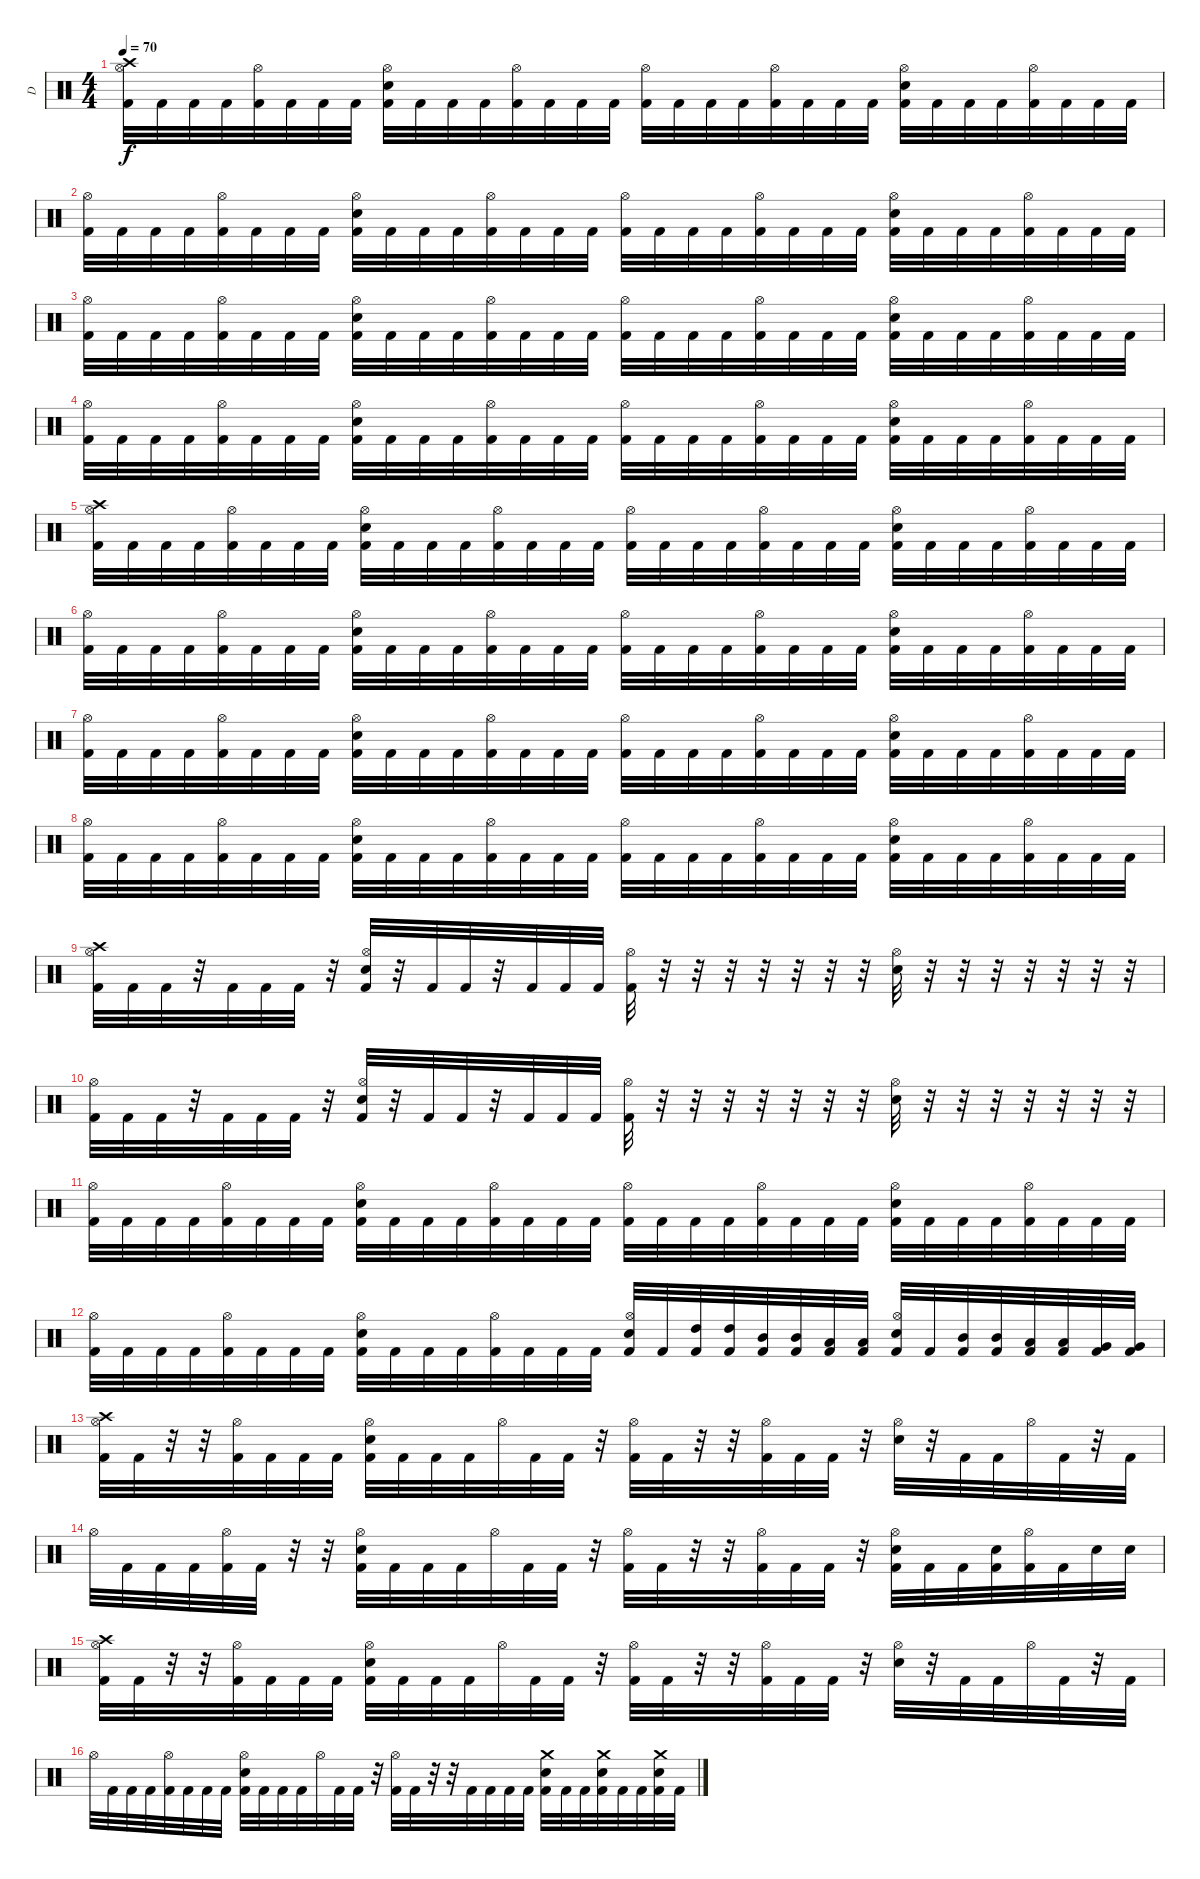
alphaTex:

\track ("D" "D") {instrument percussion}
\staff {score}
\articulation defaults
\ts (4 4)
\tempo 70
\clef neutral
\ks c
("Crash high (hit)" "Kick (hit) 2" "Hi-Hat (open)").32{dy f} "Kick (hit) 2".32 "Kick (hit) 2".32 "Kick (hit) 2".32 ("Kick (hit) 2" "Hi-Hat (open)").32 "Kick (hit) 2".32 "Kick (hit) 2".32 "Kick (hit) 2".32 ("Electric Snare (hit)" "Kick (hit) 2" "Hi-Hat (open)").32 "Kick (hit) 2".32 "Kick (hit) 2".32 "Kick (hit) 2".32 ("Kick (hit) 2" "Hi-Hat (open)").32 "Kick (hit) 2".32 "Kick (hit) 2".32 "Kick (hit) 2".32 ("Kick (hit) 2" "Hi-Hat (open)").32 "Kick (hit) 2".32 "Kick (hit) 2".32 "Kick (hit) 2".32 ("Kick (hit) 2" "Hi-Hat (open)").32 "Kick (hit) 2".32 "Kick (hit) 2".32 "Kick (hit) 2".32 ("Electric Snare (hit)" "Kick (hit) 2" "Hi-Hat (open)").32 "Kick (hit) 2".32 "Kick (hit) 2".32 "Kick (hit) 2".32 ("Kick (hit) 2" "Hi-Hat (open)").32 "Kick (hit) 2".32 "Kick (hit) 2".32 "Kick (hit) 2".32 |
("Kick (hit) 2" "Hi-Hat (open)").32 "Kick (hit) 2".32 "Kick (hit) 2".32 "Kick (hit) 2".32 ("Kick (hit) 2" "Hi-Hat (open)").32 "Kick (hit) 2".32 "Kick (hit) 2".32 "Kick (hit) 2".32 ("Electric Snare (hit)" "Kick (hit) 2" "Hi-Hat (open)").32 "Kick (hit) 2".32 "Kick (hit) 2".32 "Kick (hit) 2".32 ("Kick (hit) 2" "Hi-Hat (open)").32 "Kick (hit) 2".32 "Kick (hit) 2".32 "Kick (hit) 2".32 ("Kick (hit) 2" "Hi-Hat (open)").32 "Kick (hit) 2".32 "Kick (hit) 2".32 "Kick (hit) 2".32 ("Kick (hit) 2" "Hi-Hat (open)").32 "Kick (hit) 2".32 "Kick (hit) 2".32 "Kick (hit) 2".32 ("Electric Snare (hit)" "Kick (hit) 2" "Hi-Hat (open)").32 "Kick (hit) 2".32 "Kick (hit) 2".32 "Kick (hit) 2".32 ("Kick (hit) 2" "Hi-Hat (open)").32 "Kick (hit) 2".32 "Kick (hit) 2".32 "Kick (hit) 2".32 |
("Kick (hit) 2" "Hi-Hat (open)").32 "Kick (hit) 2".32 "Kick (hit) 2".32 "Kick (hit) 2".32 ("Kick (hit) 2" "Hi-Hat (open)").32 "Kick (hit) 2".32 "Kick (hit) 2".32 "Kick (hit) 2".32 ("Electric Snare (hit)" "Kick (hit) 2" "Hi-Hat (open)").32 "Kick (hit) 2".32 "Kick (hit) 2".32 "Kick (hit) 2".32 ("Kick (hit) 2" "Hi-Hat (open)").32 "Kick (hit) 2".32 "Kick (hit) 2".32 "Kick (hit) 2".32 ("Kick (hit) 2" "Hi-Hat (open)").32 "Kick (hit) 2".32 "Kick (hit) 2".32 "Kick (hit) 2".32 ("Kick (hit) 2" "Hi-Hat (open)").32 "Kick (hit) 2".32 "Kick (hit) 2".32 "Kick (hit) 2".32 ("Electric Snare (hit)" "Kick (hit) 2" "Hi-Hat (open)").32 "Kick (hit) 2".32 "Kick (hit) 2".32 "Kick (hit) 2".32 ("Kick (hit) 2" "Hi-Hat (open)").32 "Kick (hit) 2".32 "Kick (hit) 2".32 "Kick (hit) 2".32 |
("Kick (hit) 2" "Hi-Hat (open)").32 "Kick (hit) 2".32 "Kick (hit) 2".32 "Kick (hit) 2".32 ("Kick (hit) 2" "Hi-Hat (open)").32 "Kick (hit) 2".32 "Kick (hit) 2".32 "Kick (hit) 2".32 ("Electric Snare (hit)" "Kick (hit) 2" "Hi-Hat (open)").32 "Kick (hit) 2".32 "Kick (hit) 2".32 "Kick (hit) 2".32 ("Kick (hit) 2" "Hi-Hat (open)").32 "Kick (hit) 2".32 "Kick (hit) 2".32 "Kick (hit) 2".32 ("Kick (hit) 2" "Hi-Hat (open)").32 "Kick (hit) 2".32 "Kick (hit) 2".32 "Kick (hit) 2".32 ("Kick (hit) 2" "Hi-Hat (open)").32 "Kick (hit) 2".32 "Kick (hit) 2".32 "Kick (hit) 2".32 ("Electric Snare (hit)" "Kick (hit) 2" "Hi-Hat (open)").32 "Kick (hit) 2".32 "Kick (hit) 2".32 "Kick (hit) 2".32 ("Kick (hit) 2" "Hi-Hat (open)").32 "Kick (hit) 2".32 "Kick (hit) 2".32 "Kick (hit) 2".32 |
("Crash high (hit)" "Kick (hit) 2" "Hi-Hat (open)").32 "Kick (hit) 2".32 "Kick (hit) 2".32 "Kick (hit) 2".32 ("Kick (hit) 2" "Hi-Hat (open)").32 "Kick (hit) 2".32 "Kick (hit) 2".32 "Kick (hit) 2".32 ("Electric Snare (hit)" "Kick (hit) 2" "Hi-Hat (open)").32 "Kick (hit) 2".32 "Kick (hit) 2".32 "Kick (hit) 2".32 ("Kick (hit) 2" "Hi-Hat (open)").32 "Kick (hit) 2".32 "Kick (hit) 2".32 "Kick (hit) 2".32 ("Kick (hit) 2" "Hi-Hat (open)").32 "Kick (hit) 2".32 "Kick (hit) 2".32 "Kick (hit) 2".32 ("Kick (hit) 2" "Hi-Hat (open)").32 "Kick (hit) 2".32 "Kick (hit) 2".32 "Kick (hit) 2".32 ("Electric Snare (hit)" "Kick (hit) 2" "Hi-Hat (open)").32 "Kick (hit) 2".32 "Kick (hit) 2".32 "Kick (hit) 2".32 ("Kick (hit) 2" "Hi-Hat (open)").32 "Kick (hit) 2".32 "Kick (hit) 2".32 "Kick (hit) 2".32 |
("Kick (hit) 2" "Hi-Hat (open)").32 "Kick (hit) 2".32 "Kick (hit) 2".32 "Kick (hit) 2".32 ("Kick (hit) 2" "Hi-Hat (open)").32 "Kick (hit) 2".32 "Kick (hit) 2".32 "Kick (hit) 2".32 ("Electric Snare (hit)" "Kick (hit) 2" "Hi-Hat (open)").32 "Kick (hit) 2".32 "Kick (hit) 2".32 "Kick (hit) 2".32 ("Kick (hit) 2" "Hi-Hat (open)").32 "Kick (hit) 2".32 "Kick (hit) 2".32 "Kick (hit) 2".32 ("Kick (hit) 2" "Hi-Hat (open)").32 "Kick (hit) 2".32 "Kick (hit) 2".32 "Kick (hit) 2".32 ("Kick (hit) 2" "Hi-Hat (open)").32 "Kick (hit) 2".32 "Kick (hit) 2".32 "Kick (hit) 2".32 ("Electric Snare (hit)" "Kick (hit) 2" "Hi-Hat (open)").32 "Kick (hit) 2".32 "Kick (hit) 2".32 "Kick (hit) 2".32 ("Kick (hit) 2" "Hi-Hat (open)").32 "Kick (hit) 2".32 "Kick (hit) 2".32 "Kick (hit) 2".32 |
("Kick (hit) 2" "Hi-Hat (open)").32 "Kick (hit) 2".32 "Kick (hit) 2".32 "Kick (hit) 2".32 ("Kick (hit) 2" "Hi-Hat (open)").32 "Kick (hit) 2".32 "Kick (hit) 2".32 "Kick (hit) 2".32 ("Electric Snare (hit)" "Kick (hit) 2" "Hi-Hat (open)").32 "Kick (hit) 2".32 "Kick (hit) 2".32 "Kick (hit) 2".32 ("Kick (hit) 2" "Hi-Hat (open)").32 "Kick (hit) 2".32 "Kick (hit) 2".32 "Kick (hit) 2".32 ("Kick (hit) 2" "Hi-Hat (open)").32 "Kick (hit) 2".32 "Kick (hit) 2".32 "Kick (hit) 2".32 ("Kick (hit) 2" "Hi-Hat (open)").32 "Kick (hit) 2".32 "Kick (hit) 2".32 "Kick (hit) 2".32 ("Electric Snare (hit)" "Kick (hit) 2" "Hi-Hat (open)").32 "Kick (hit) 2".32 "Kick (hit) 2".32 "Kick (hit) 2".32 ("Kick (hit) 2" "Hi-Hat (open)").32 "Kick (hit) 2".32 "Kick (hit) 2".32 "Kick (hit) 2".32 |
("Kick (hit) 2" "Hi-Hat (open)").32 "Kick (hit) 2".32 "Kick (hit) 2".32 "Kick (hit) 2".32 ("Kick (hit) 2" "Hi-Hat (open)").32 "Kick (hit) 2".32 "Kick (hit) 2".32 "Kick (hit) 2".32 ("Electric Snare (hit)" "Kick (hit) 2" "Hi-Hat (open)").32 "Kick (hit) 2".32 "Kick (hit) 2".32 "Kick (hit) 2".32 ("Kick (hit) 2" "Hi-Hat (open)").32 "Kick (hit) 2".32 "Kick (hit) 2".32 "Kick (hit) 2".32 ("Kick (hit) 2" "Hi-Hat (open)").32 "Kick (hit) 2".32 "Kick (hit) 2".32 "Kick (hit) 2".32 ("Kick (hit) 2" "Hi-Hat (open)").32 "Kick (hit) 2".32 "Kick (hit) 2".32 "Kick (hit) 2".32 ("Electric Snare (hit)" "Kick (hit) 2" "Hi-Hat (open)").32 "Kick (hit) 2".32 "Kick (hit) 2".32 "Kick (hit) 2".32 ("Kick (hit) 2" "Hi-Hat (open)").32 "Kick (hit) 2".32 "Kick (hit) 2".32 "Kick (hit) 2".32 |
("Crash high (hit)" "Kick (hit) 2" "Hi-Hat (open)").32 "Kick (hit) 2".32 "Kick (hit) 2".32 r.32 "Kick (hit) 2".32 "Kick (hit) 2".32 "Kick (hit) 2".32 r.32 ("Electric Snare (hit)" "Kick (hit) 2" "Hi-Hat (open)").32 r.32 "Kick (hit) 2".32 "Kick (hit) 2".32 r.32 "Kick (hit) 2".32 "Kick (hit) 2".32 "Kick (hit) 2".32 ("Kick (hit) 2" "Hi-Hat (open)").32 r.32 r.32 r.32 r.32 r.32 r.32 r.32 ("Electric Snare (hit)" "Hi-Hat (open)").32 r.32 r.32 r.32 r.32 r.32 r.32 r.32 |
("Kick (hit) 2" "Hi-Hat (open)").32 "Kick (hit) 2".32 "Kick (hit) 2".32 r.32 "Kick (hit) 2".32 "Kick (hit) 2".32 "Kick (hit) 2".32 r.32 ("Electric Snare (hit)" "Kick (hit) 2" "Hi-Hat (open)").32 r.32 "Kick (hit) 2".32 "Kick (hit) 2".32 r.32 "Kick (hit) 2".32 "Kick (hit) 2".32 "Kick (hit) 2".32 ("Kick (hit) 2" "Hi-Hat (open)").32 r.32 r.32 r.32 r.32 r.32 r.32 r.32 ("Electric Snare (hit)" "Hi-Hat (open)").32 r.32 r.32 r.32 r.32 r.32 r.32 r.32 |
("Kick (hit) 2" "Hi-Hat (open)").32 "Kick (hit) 2".32 "Kick (hit) 2".32 "Kick (hit) 2".32 ("Kick (hit) 2" "Hi-Hat (open)").32 "Kick (hit) 2".32 "Kick (hit) 2".32 "Kick (hit) 2".32 ("Electric Snare (hit)" "Kick (hit) 2" "Hi-Hat (open)").32 "Kick (hit) 2".32 "Kick (hit) 2".32 "Kick (hit) 2".32 ("Kick (hit) 2" "Hi-Hat (open)").32 "Kick (hit) 2".32 "Kick (hit) 2".32 "Kick (hit) 2".32 ("Kick (hit) 2" "Hi-Hat (open)").32 "Kick (hit) 2".32 "Kick (hit) 2".32 "Kick (hit) 2".32 ("Kick (hit) 2" "Hi-Hat (open)").32 "Kick (hit) 2".32 "Kick (hit) 2".32 "Kick (hit) 2".32 ("Electric Snare (hit)" "Kick (hit) 2" "Hi-Hat (open)").32 "Kick (hit) 2".32 "Kick (hit) 2".32 "Kick (hit) 2".32 ("Kick (hit) 2" "Hi-Hat (open)").32 "Kick (hit) 2".32 "Kick (hit) 2".32 "Kick (hit) 2".32 |
("Kick (hit) 2" "Hi-Hat (open)").32 "Kick (hit) 2".32 "Kick (hit) 2".32 "Kick (hit) 2".32 ("Kick (hit) 2" "Hi-Hat (open)").32 "Kick (hit) 2".32 "Kick (hit) 2".32 "Kick (hit) 2".32 ("Electric Snare (hit)" "Kick (hit) 2" "Hi-Hat (open)").32 "Kick (hit) 2".32 "Kick (hit) 2".32 "Kick (hit) 2".32 ("Kick (hit) 2" "Hi-Hat (open)").32 "Kick (hit) 2".32 "Kick (hit) 2".32 "Kick (hit) 2".32 ("Electric Snare (hit)" "Kick (hit) 2" "Hi-Hat (open)").32 "Kick (hit) 2".32 ("High Tom (hit)" "Kick (hit) 2").32 ("High Tom (hit)" "Kick (hit) 2").32 ("Mid Tom (hit)" "Kick (hit) 2").32 ("Mid Tom (hit)" "Kick (hit) 2").32 ("Low Tom (hit)" "Kick (hit) 2").32 ("Low Tom (hit)" "Kick (hit) 2").32 ("Electric Snare (hit)" "Kick (hit) 2" "Hi-Hat (open)").32 "Kick (hit) 2".32 ("Mid Tom (hit)" "Kick (hit) 2").32 ("Mid Tom (hit)" "Kick (hit) 2").32 ("Low Tom (hit)" "Kick (hit) 2").32 ("Low Tom (hit)" "Kick (hit) 2").32 ("Very Low Tom (hit)" "Kick (hit) 2").32 ("Very Low Tom (hit)" "Kick (hit) 2").32 |
("Crash high (hit)" "Kick (hit) 2" "Hi-Hat (open)").32 "Kick (hit) 2".32 r.32 r.32 ("Kick (hit) 2" "Hi-Hat (open)").32 "Kick (hit) 2".32 "Kick (hit) 2".32 "Kick (hit) 2".32 ("Electric Snare (hit)" "Kick (hit) 2" "Hi-Hat (open)").32 "Kick (hit) 2".32 "Kick (hit) 2".32 "Kick (hit) 2".32 "Hi-Hat (open)".32 "Kick (hit) 2".32 "Kick (hit) 2".32 r.32 ("Kick (hit) 2" "Hi-Hat (open)").32 "Kick (hit) 2".32 r.32 r.32 ("Kick (hit) 2" "Hi-Hat (open)").32 "Kick (hit) 2".32 "Kick (hit) 2".32 r.32 ("Electric Snare (hit)" "Hi-Hat (open)").32 r.32 "Kick (hit) 2".32 "Kick (hit) 2".32 "Hi-Hat (open)".32 "Kick (hit) 2".32 r.32 "Kick (hit) 2".32 |
"Hi-Hat (open)".32 "Kick (hit) 2".32 "Kick (hit) 2".32 "Kick (hit) 2".32 ("Kick (hit) 2" "Hi-Hat (open)").32 "Kick (hit) 2".32 r.32 r.32 ("Electric Snare (hit)" "Kick (hit) 2" "Hi-Hat (open)").32 "Kick (hit) 2".32 "Kick (hit) 2".32 "Kick (hit) 2".32 "Hi-Hat (open)".32 "Kick (hit) 2".32 "Kick (hit) 2".32 r.32 ("Kick (hit) 2" "Hi-Hat (open)").32 "Kick (hit) 2".32 r.32 r.32 ("Kick (hit) 2" "Hi-Hat (open)").32 "Kick (hit) 2".32 "Kick (hit) 2".32 r.32 ("Electric Snare (hit)" "Kick (hit) 2" "Hi-Hat (open)").32 "Kick (hit) 2".32 "Kick (hit) 2".32 ("Electric Snare (hit)" "Kick (hit) 2").32 ("Kick (hit) 2" "Hi-Hat (open)").32 "Kick (hit) 2".32 "Electric Snare (hit)".32 "Electric Snare (hit)".32 |
("Crash high (hit)" "Kick (hit) 2" "Hi-Hat (open)").32 "Kick (hit) 2".32 r.32 r.32 ("Kick (hit) 2" "Hi-Hat (open)").32 "Kick (hit) 2".32 "Kick (hit) 2".32 "Kick (hit) 2".32 ("Electric Snare (hit)" "Kick (hit) 2" "Hi-Hat (open)").32 "Kick (hit) 2".32 "Kick (hit) 2".32 "Kick (hit) 2".32 "Hi-Hat (open)".32 "Kick (hit) 2".32 "Kick (hit) 2".32 r.32 ("Kick (hit) 2" "Hi-Hat (open)").32 "Kick (hit) 2".32 r.32 r.32 ("Kick (hit) 2" "Hi-Hat (open)").32 "Kick (hit) 2".32 "Kick (hit) 2".32 r.32 ("Electric Snare (hit)" "Hi-Hat (open)").32 r.32 "Kick (hit) 2".32 "Kick (hit) 2".32 "Hi-Hat (open)".32 "Kick (hit) 2".32 r.32 "Kick (hit) 2".32 |
"Hi-Hat (open)".32 "Kick (hit) 2".32 "Kick (hit) 2".32 "Kick (hit) 2".32 ("Kick (hit) 2" "Hi-Hat (open)").32 "Kick (hit) 2".32 "Kick (hit) 2".32 "Kick (hit) 2".32 ("Electric Snare (hit)" "Kick (hit) 2" "Hi-Hat (open)").32 "Kick (hit) 2".32 "Kick (hit) 2".32 "Kick (hit) 2".32 "Hi-Hat (open)".32 "Kick (hit) 2".32 "Kick (hit) 2".32 r.32 ("Kick (hit) 2" "Hi-Hat (open)").32 "Kick (hit) 2".32 r.32 r.32 "Kick (hit) 2".32 "Kick (hit) 2".32 "Kick (hit) 2".32 "Kick (hit) 2".32 ("Electric Snare (hit)" "Kick (hit) 2" "Crash medium (hit)").32 "Kick (hit) 2".32 "Kick (hit) 2".32 ("Electric Snare (hit)" "Kick (hit) 2" "Crash medium (hit)").32 "Kick (hit) 2".32 "Kick (hit) 2".32 ("Electric Snare (hit)" "Kick (hit) 2" "Crash medium (hit)").32 "Kick (hit) 2".32
